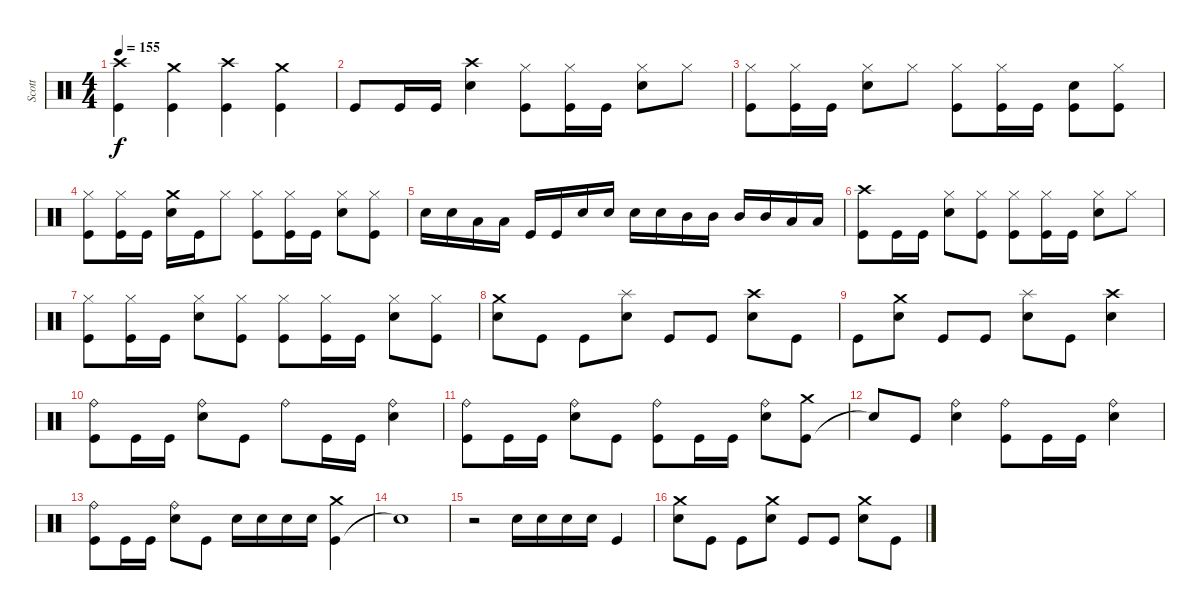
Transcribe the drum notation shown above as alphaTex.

\track ("Scott" "Scott") {instrument percussion}
\staff {score}
\articulation defaults
\ts (4 4)
\tempo 155
\clef neutral
\ks c
("Kick (hit)" "Crash high (hit)").4{dy f} ("Kick (hit)" "Crash medium (hit)").4 ("Kick (hit)" "Crash high (hit)").4 ("Kick (hit)" "Crash medium (hit)").4 |
"Kick (hit)".8 "Kick (hit)".16 "Kick (hit)".16 ("Snare (hit) 2" "Crash high (hit)").4 ("Kick (hit)" "Hi-Hat (closed)").8 ("Kick (hit)" "Hi-Hat (closed)").16 "Kick (hit)".16 ("Snare (hit) 2" "Hi-Hat (closed)").8 "Hi-Hat (closed)".8 |
("Kick (hit)" "Hi-Hat (closed)").8 ("Kick (hit)" "Hi-Hat (closed)").16 "Kick (hit)".16 ("Snare (hit) 2" "Hi-Hat (closed)").8 "Hi-Hat (closed)".8 ("Kick (hit)" "Hi-Hat (closed)").8 ("Kick (hit)" "Hi-Hat (closed)").16 "Kick (hit)".16 ("Kick (hit)" "Snare (hit) 2").8 ("Kick (hit)" "Hi-Hat (closed)").8 |
("Kick (hit)" "Hi-Hat (closed)").8 ("Kick (hit)" "Hi-Hat (closed)").16 "Kick (hit)".16 ("Snare (hit) 2" "Crash medium (hit)").16 "Kick (hit)".16 "Hi-Hat (closed)".8 ("Kick (hit)" "Hi-Hat (closed)").8 ("Kick (hit)" "Hi-Hat (closed)").16 "Kick (hit)".16 ("Snare (hit) 2" "Hi-Hat (closed)").8 ("Kick (hit)" "Hi-Hat (closed)").8 |
"Snare (hit) 2".16 "Snare (hit) 2".16 "Low Tom (hit)".16 "Low Tom (hit)".16 "Kick (hit)".16 "Kick (hit)".16 "Snare (hit) 2".16 "Snare (hit) 2".16 "Snare (hit) 2".16 "Snare (hit) 2".16 "Mid Tom (hit)".16 "Mid Tom (hit)".16 "Mid Tom (hit)".16 "Mid Tom (hit)".16 "Low Tom (hit)".16 "Low Tom (hit)".16 |
("Kick (hit)" "Crash high (hit)").8 "Kick (hit)".16 "Kick (hit)".16 ("Snare (hit) 2" "Hi-Hat (closed)").8 ("Kick (hit)" "Hi-Hat (closed)").8 ("Kick (hit)" "Hi-Hat (closed)").8 ("Kick (hit)" "Hi-Hat (closed)").16 "Kick (hit)".16 ("Snare (hit) 2" "Hi-Hat (closed)").8 "Hi-Hat (closed)".8 |
("Kick (hit)" "Hi-Hat (closed)").8 ("Kick (hit)" "Hi-Hat (closed)").16 "Kick (hit)".16 ("Snare (hit) 2" "Hi-Hat (closed)").8 ("Kick (hit)" "Hi-Hat (closed)").8 ("Kick (hit)" "Hi-Hat (closed)").8 ("Kick (hit)" "Hi-Hat (closed)").16 "Kick (hit)".16 ("Snare (hit) 2" "Hi-Hat (closed)").8 ("Kick (hit)" "Hi-Hat (closed)").8 |
("Snare (hit) 2" "Crash medium (hit)").8 "Kick (hit)".8 "Kick (hit)".8 ("Snare (hit) 2" "Splash (hit)").8 "Kick (hit)".8 "Kick (hit)".8 ("Snare (hit) 2" "Crash high (hit)").8 "Kick (hit)".8 |
"Kick (hit)".8 ("Snare (hit) 2" "Crash medium (hit)").8 "Kick (hit)".8 "Kick (hit)".8 ("Snare (hit) 2" "Splash (hit)").8 "Kick (hit)".8 ("Snare (hit) 2" "Crash high (hit)").4 |
("Kick (hit)" "Ride (bell)").8 "Kick (hit)".16 "Kick (hit)".16 ("Snare (hit) 2" "Ride (bell)").8 "Kick (hit)".8 "Ride (bell)".8 "Kick (hit)".16 "Kick (hit)".16 ("Snare (hit) 2" "Ride (bell)").4 |
("Kick (hit)" "Ride (bell)").8 "Kick (hit)".16 "Kick (hit)".16 ("Snare (hit) 2" "Ride (bell)").8 "Kick (hit)".8 ("Kick (hit)" "Ride (bell)").8 "Kick (hit)".16 "Kick (hit)".16 ("Snare (hit) 2" "Ride (bell)").8 ("Kick (hit)" "Crash medium (hit)").8 |
"Snare (hit)"{t}.8 "Kick (hit)".8 ("Snare (hit) 2" "Ride (bell)").4 ("Kick (hit)" "Ride (bell)").8 "Kick (hit)".16 "Kick (hit)".16 ("Snare (hit) 2" "Ride (bell)").4 |
("Kick (hit)" "Ride (bell)").8 "Kick (hit)".16 "Kick (hit)".16 ("Snare (hit) 2" "Ride (bell)").8 "Kick (hit)".8 "Snare (hit) 2".16 "Snare (hit) 2".16 "Snare (hit) 2".16 "Snare (hit) 2".16 ("Kick (hit)" "Crash medium (hit)").4 |
"Snare (hit)"{t}.1 |
r.2 "Snare (hit) 2".16 "Snare (hit) 2".16 "Snare (hit) 2".16 "Snare (hit) 2".16 "Kick (hit)".4 |
("Snare (hit) 2" "Crash medium (hit)").8 "Kick (hit)".8 "Kick (hit)".8 ("Snare (hit) 2" "Crash medium (hit)").8 "Kick (hit)".8 "Kick (hit)".8 ("Snare (hit) 2" "Crash medium (hit)").8 "Kick (hit)".8
